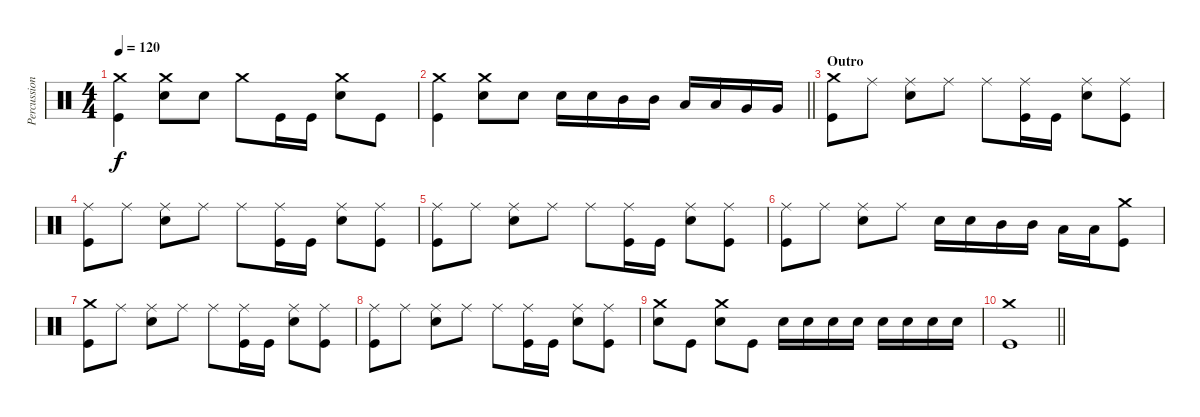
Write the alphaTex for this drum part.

\track ("Percussion" "Percussion") {instrument percussion}
\staff {score}
\articulation defaults
\ts (4 4)
\tempo 120
\clef neutral
\ks c
("Crash medium (hit)" "Kick (hit)").4{dy f} ("Crash medium (hit)" "Snare (hit) 2").8 "Snare (hit) 2".8 "Crash medium (hit)".8 "Kick (hit)".16 "Kick (hit)".16 ("Crash medium (hit)" "Snare (hit) 2").8 "Kick (hit)".8 |
\barLineRight lightlight
("Crash medium (hit)" "Kick (hit)").4 ("Crash medium (hit)" "Snare (hit) 2").8 "Snare (hit) 2".8 "Snare (hit) 2".16 "Snare (hit) 2".16 "Mid Tom (hit)".16 "Mid Tom (hit)".16 "Low Tom (hit)".16 "Low Tom (hit)".16 "Very Low Tom (hit)".16 "Very Low Tom (hit)".16 |
\section ("" "Outro")
("Crash medium (hit)" "Kick (hit)").8 "Ride (middle)".8 ("Ride (middle)" "Snare (hit) 2").8 "Ride (middle)".8 "Ride (middle)".8 ("Ride (middle)" "Kick (hit)").16 "Kick (hit)".16 ("Ride (middle)" "Snare (hit) 2").8 ("Ride (middle)" "Kick (hit)").8 |
("Ride (middle)" "Kick (hit)").8 "Ride (middle)".8 ("Ride (middle)" "Snare (hit) 2").8 "Ride (middle)".8 "Ride (middle)".8 ("Ride (middle)" "Kick (hit)").16 "Kick (hit)".16 ("Ride (middle)" "Snare (hit) 2").8 ("Ride (middle)" "Kick (hit)").8 |
("Ride (middle)" "Kick (hit)").8 "Ride (middle)".8 ("Ride (middle)" "Snare (hit) 2").8 "Ride (middle)".8 "Ride (middle)".8 ("Ride (middle)" "Kick (hit)").16 "Kick (hit)".16 ("Ride (middle)" "Snare (hit) 2").8 ("Ride (middle)" "Kick (hit)").8 |
("Ride (middle)" "Kick (hit)").8 "Ride (middle)".8 ("Ride (middle)" "Snare (hit) 2").8 "Ride (middle)".8 "Snare (hit) 2".16 "Snare (hit) 2".16 "Mid Tom (hit)".16 "Mid Tom (hit)".16 "Low Tom (hit)".16 "Low Tom (hit)".16 ("Crash medium (hit)" "Kick (hit)").8 |
("Crash medium (hit)" "Kick (hit)").8 "Ride (middle)".8 ("Ride (middle)" "Snare (hit) 2").8 "Ride (middle)".8 "Ride (middle)".8 ("Ride (middle)" "Kick (hit)").16 "Kick (hit)".16 ("Ride (middle)" "Snare (hit) 2").8 ("Ride (middle)" "Kick (hit)").8 |
("Ride (middle)" "Kick (hit)").8 "Ride (middle)".8 ("Ride (middle)" "Snare (hit) 2").8 "Ride (middle)".8 "Ride (middle)".8 ("Ride (middle)" "Kick (hit)").16 "Kick (hit)".16 ("Ride (middle)" "Snare (hit) 2").8 ("Ride (middle)" "Kick (hit)").8 |
("Crash medium (hit)" "Snare (hit) 2").8 "Kick (hit)".8 ("Crash medium (hit)" "Snare (hit) 2").8 "Kick (hit)".8 "Snare (hit) 2".16 "Snare (hit) 2".16 "Snare (hit) 2".16 "Snare (hit) 2".16 "Snare (hit) 2".16 "Snare (hit) 2".16 "Snare (hit) 2".16 "Snare (hit) 2".16 |
\barLineRight lightlight
("Crash medium (hit)" "Kick (hit)").1
